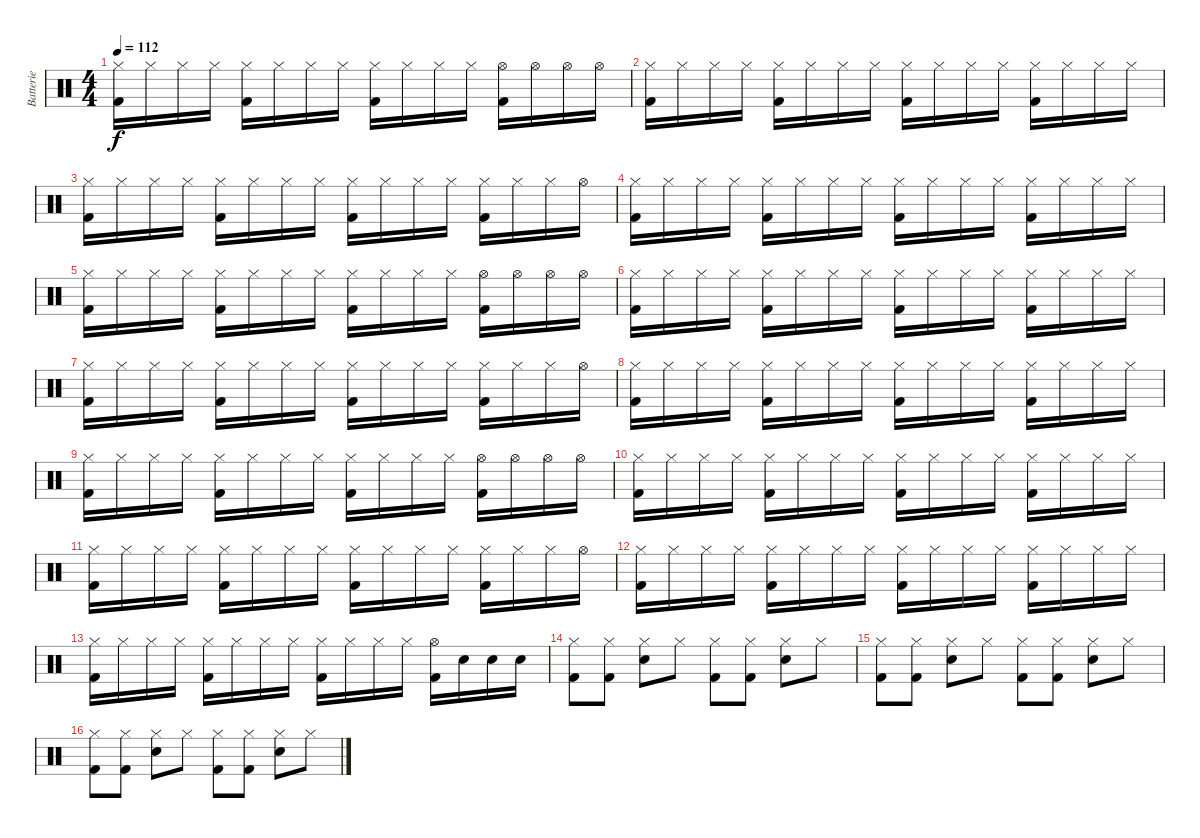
\track ("Batterie" "Batterie") {instrument percussion}
\staff {score}
\articulation defaults
\ts (4 4)
\tempo 112
\clef neutral
\ks c
("Kick (hit) 2" "Hi-Hat (closed)").16{dy f} "Hi-Hat (closed)".16 "Hi-Hat (closed)".16 "Hi-Hat (closed)".16 ("Kick (hit) 2" "Hi-Hat (closed)").16 "Hi-Hat (closed)".16 "Hi-Hat (closed)".16 "Hi-Hat (closed)".16 ("Kick (hit) 2" "Hi-Hat (closed)").16 "Hi-Hat (closed)".16 "Hi-Hat (closed)".16 "Hi-Hat (closed)".16 ("Kick (hit) 2" "Hi-Hat (open)").16 "Hi-Hat (open)".16 "Hi-Hat (open)".16 "Hi-Hat (open)".16 |
("Kick (hit) 2" "Hi-Hat (closed)").16 "Hi-Hat (closed)".16 "Hi-Hat (closed)".16 "Hi-Hat (closed)".16 ("Kick (hit) 2" "Hi-Hat (closed)").16 "Hi-Hat (closed)".16 "Hi-Hat (closed)".16 "Hi-Hat (closed)".16 ("Kick (hit) 2" "Hi-Hat (closed)").16 "Hi-Hat (closed)".16 "Hi-Hat (closed)".16 "Hi-Hat (closed)".16 ("Kick (hit) 2" "Hi-Hat (closed)").16 "Hi-Hat (closed)".16 "Hi-Hat (closed)".16 "Hi-Hat (closed)".16 |
("Kick (hit) 2" "Hi-Hat (closed)").16 "Hi-Hat (closed)".16 "Hi-Hat (closed)".16 "Hi-Hat (closed)".16 ("Kick (hit) 2" "Hi-Hat (closed)").16 "Hi-Hat (closed)".16 "Hi-Hat (closed)".16 "Hi-Hat (closed)".16 ("Kick (hit) 2" "Hi-Hat (closed)").16 "Hi-Hat (closed)".16 "Hi-Hat (closed)".16 "Hi-Hat (closed)".16 ("Kick (hit) 2" "Hi-Hat (closed)").16 "Hi-Hat (closed)".16 "Hi-Hat (closed)".16 "Hi-Hat (open)".16 |
("Kick (hit) 2" "Hi-Hat (closed)").16 "Hi-Hat (closed)".16 "Hi-Hat (closed)".16 "Hi-Hat (closed)".16 ("Kick (hit) 2" "Hi-Hat (closed)").16 "Hi-Hat (closed)".16 "Hi-Hat (closed)".16 "Hi-Hat (closed)".16 ("Kick (hit) 2" "Hi-Hat (closed)").16 "Hi-Hat (closed)".16 "Hi-Hat (closed)".16 "Hi-Hat (closed)".16 ("Kick (hit) 2" "Hi-Hat (closed)").16 "Hi-Hat (closed)".16 "Hi-Hat (closed)".16 "Hi-Hat (closed)".16 |
("Kick (hit) 2" "Hi-Hat (closed)").16 "Hi-Hat (closed)".16 "Hi-Hat (closed)".16 "Hi-Hat (closed)".16 ("Kick (hit) 2" "Hi-Hat (closed)").16 "Hi-Hat (closed)".16 "Hi-Hat (closed)".16 "Hi-Hat (closed)".16 ("Kick (hit) 2" "Hi-Hat (closed)").16 "Hi-Hat (closed)".16 "Hi-Hat (closed)".16 "Hi-Hat (closed)".16 ("Kick (hit) 2" "Hi-Hat (open)").16 "Hi-Hat (open)".16 "Hi-Hat (open)".16 "Hi-Hat (open)".16 |
("Kick (hit) 2" "Hi-Hat (closed)").16 "Hi-Hat (closed)".16 "Hi-Hat (closed)".16 "Hi-Hat (closed)".16 ("Kick (hit) 2" "Hi-Hat (closed)").16 "Hi-Hat (closed)".16 "Hi-Hat (closed)".16 "Hi-Hat (closed)".16 ("Kick (hit) 2" "Hi-Hat (closed)").16 "Hi-Hat (closed)".16 "Hi-Hat (closed)".16 "Hi-Hat (closed)".16 ("Kick (hit) 2" "Hi-Hat (closed)").16 "Hi-Hat (closed)".16 "Hi-Hat (closed)".16 "Hi-Hat (closed)".16 |
("Kick (hit) 2" "Hi-Hat (closed)").16 "Hi-Hat (closed)".16 "Hi-Hat (closed)".16 "Hi-Hat (closed)".16 ("Kick (hit) 2" "Hi-Hat (closed)").16 "Hi-Hat (closed)".16 "Hi-Hat (closed)".16 "Hi-Hat (closed)".16 ("Kick (hit) 2" "Hi-Hat (closed)").16 "Hi-Hat (closed)".16 "Hi-Hat (closed)".16 "Hi-Hat (closed)".16 ("Kick (hit) 2" "Hi-Hat (closed)").16 "Hi-Hat (closed)".16 "Hi-Hat (closed)".16 "Hi-Hat (open)".16 |
("Kick (hit) 2" "Hi-Hat (closed)").16 "Hi-Hat (closed)".16 "Hi-Hat (closed)".16 "Hi-Hat (closed)".16 ("Kick (hit) 2" "Hi-Hat (closed)").16 "Hi-Hat (closed)".16 "Hi-Hat (closed)".16 "Hi-Hat (closed)".16 ("Kick (hit) 2" "Hi-Hat (closed)").16 "Hi-Hat (closed)".16 "Hi-Hat (closed)".16 "Hi-Hat (closed)".16 ("Kick (hit) 2" "Hi-Hat (closed)").16 "Hi-Hat (closed)".16 "Hi-Hat (closed)".16 "Hi-Hat (closed)".16 |
("Kick (hit) 2" "Hi-Hat (closed)").16 "Hi-Hat (closed)".16 "Hi-Hat (closed)".16 "Hi-Hat (closed)".16 ("Kick (hit) 2" "Hi-Hat (closed)").16 "Hi-Hat (closed)".16 "Hi-Hat (closed)".16 "Hi-Hat (closed)".16 ("Kick (hit) 2" "Hi-Hat (closed)").16 "Hi-Hat (closed)".16 "Hi-Hat (closed)".16 "Hi-Hat (closed)".16 ("Kick (hit) 2" "Hi-Hat (open)").16 "Hi-Hat (open)".16 "Hi-Hat (open)".16 "Hi-Hat (open)".16 |
("Kick (hit) 2" "Hi-Hat (closed)").16 "Hi-Hat (closed)".16 "Hi-Hat (closed)".16 "Hi-Hat (closed)".16 ("Kick (hit) 2" "Hi-Hat (closed)").16 "Hi-Hat (closed)".16 "Hi-Hat (closed)".16 "Hi-Hat (closed)".16 ("Kick (hit) 2" "Hi-Hat (closed)").16 "Hi-Hat (closed)".16 "Hi-Hat (closed)".16 "Hi-Hat (closed)".16 ("Kick (hit) 2" "Hi-Hat (closed)").16 "Hi-Hat (closed)".16 "Hi-Hat (closed)".16 "Hi-Hat (closed)".16 |
("Kick (hit) 2" "Hi-Hat (closed)").16 "Hi-Hat (closed)".16 "Hi-Hat (closed)".16 "Hi-Hat (closed)".16 ("Kick (hit) 2" "Hi-Hat (closed)").16 "Hi-Hat (closed)".16 "Hi-Hat (closed)".16 "Hi-Hat (closed)".16 ("Kick (hit) 2" "Hi-Hat (closed)").16 "Hi-Hat (closed)".16 "Hi-Hat (closed)".16 "Hi-Hat (closed)".16 ("Kick (hit) 2" "Hi-Hat (closed)").16 "Hi-Hat (closed)".16 "Hi-Hat (closed)".16 "Hi-Hat (open)".16 |
("Kick (hit) 2" "Hi-Hat (closed)").16 "Hi-Hat (closed)".16 "Hi-Hat (closed)".16 "Hi-Hat (closed)".16 ("Kick (hit) 2" "Hi-Hat (closed)").16 "Hi-Hat (closed)".16 "Hi-Hat (closed)".16 "Hi-Hat (closed)".16 ("Kick (hit) 2" "Hi-Hat (closed)").16 "Hi-Hat (closed)".16 "Hi-Hat (closed)".16 "Hi-Hat (closed)".16 ("Kick (hit) 2" "Hi-Hat (closed)").16 "Hi-Hat (closed)".16 "Hi-Hat (closed)".16 "Hi-Hat (closed)".16 |
("Kick (hit) 2" "Hi-Hat (closed)").16 "Hi-Hat (closed)".16 "Hi-Hat (closed)".16 "Hi-Hat (closed)".16 ("Kick (hit) 2" "Hi-Hat (closed)").16 "Hi-Hat (closed)".16 "Hi-Hat (closed)".16 "Hi-Hat (closed)".16 ("Kick (hit) 2" "Hi-Hat (closed)").16 "Hi-Hat (closed)".16 "Hi-Hat (closed)".16 "Hi-Hat (closed)".16 ("Kick (hit) 2" "Hi-Hat (open)").16 "Electric Snare (hit)".16 "Electric Snare (hit)".16 "Electric Snare (hit)".16 |
("Kick (hit) 2" "Hi-Hat (closed)").8 ("Kick (hit) 2" "Hi-Hat (closed)").8 ("Electric Snare (hit)" "Hi-Hat (closed)").8 "Hi-Hat (closed)".8 ("Kick (hit) 2" "Hi-Hat (closed)").8 ("Kick (hit) 2" "Hi-Hat (closed)").8 ("Electric Snare (hit)" "Hi-Hat (closed)").8 "Hi-Hat (closed)".8 |
("Kick (hit) 2" "Hi-Hat (closed)").8 ("Kick (hit) 2" "Hi-Hat (closed)").8 ("Electric Snare (hit)" "Hi-Hat (closed)").8 "Hi-Hat (closed)".8 ("Kick (hit) 2" "Hi-Hat (closed)").8 ("Kick (hit) 2" "Hi-Hat (closed)").8 ("Electric Snare (hit)" "Hi-Hat (closed)").8 "Hi-Hat (closed)".8 |
("Kick (hit) 2" "Hi-Hat (closed)").8 ("Kick (hit) 2" "Hi-Hat (closed)").8 ("Electric Snare (hit)" "Hi-Hat (closed)").8 "Hi-Hat (closed)".8 ("Kick (hit) 2" "Hi-Hat (closed)").8 ("Kick (hit) 2" "Hi-Hat (closed)").8 ("Electric Snare (hit)" "Hi-Hat (closed)").8 "Hi-Hat (closed)".8
